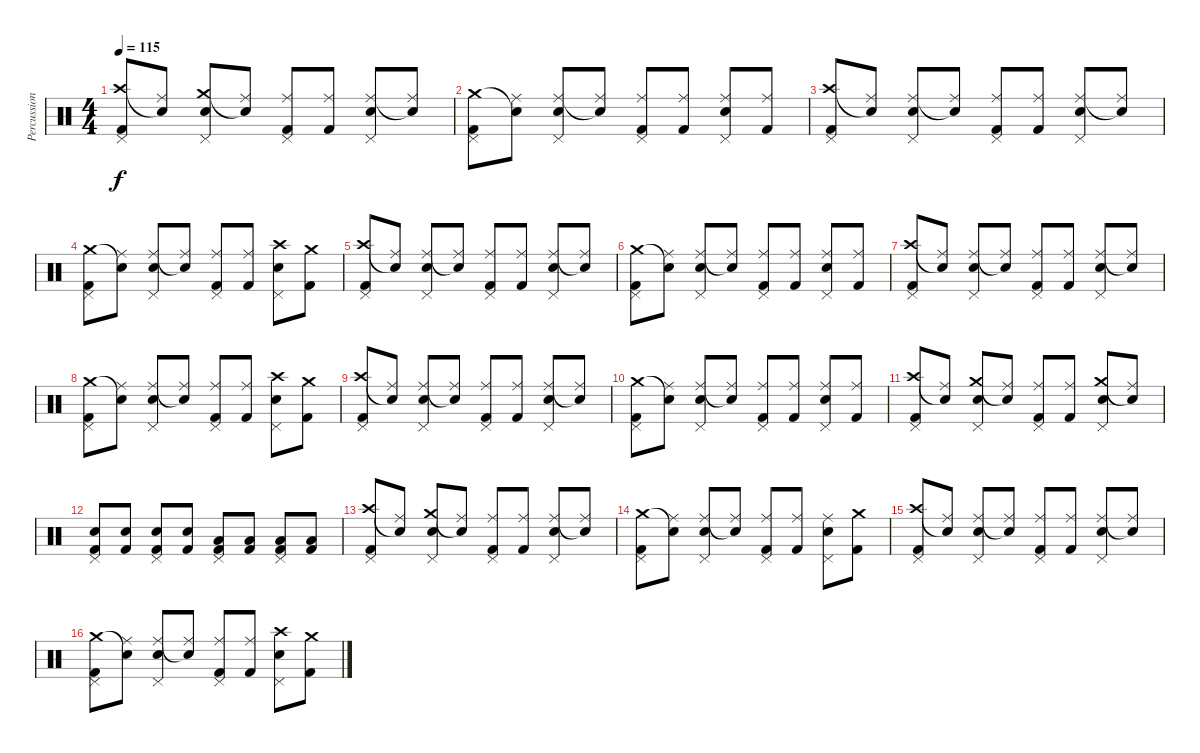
\track ("Percussioni" "Percussion") {instrument percussion}
\staff {score}
\articulation defaults
\ts (4 4)
\tempo 115
\clef neutral
\ks c
("Pedal Hi-Hat (hit)" "Crash high (hit)" "Kick (hit) 2").8{dy f} ("Ride (middle)" "Snare (hit)"{t}).8 ("Pedal Hi-Hat (hit)" "Crash medium (hit)" "Electric Snare (hit)").8 ("Ride (middle)" "Snare (hit)"{t}).8 ("Pedal Hi-Hat (hit)" "Ride (middle)" "Kick (hit) 2").8 ("Ride (middle)" "Kick (hit) 2").8 ("Pedal Hi-Hat (hit)" "Ride (middle)" "Electric Snare (hit)").8 ("Ride (middle)" "Snare (hit)"{t}).8 |
("Pedal Hi-Hat (hit)" "Crash medium (hit)" "Kick (hit) 2").8 ("Ride (middle)" "Snare (hit)"{t}).8 ("Pedal Hi-Hat (hit)" "Ride (middle)" "Electric Snare (hit)").8 ("Ride (middle)" "Snare (hit)"{t}).8 ("Pedal Hi-Hat (hit)" "Ride (middle)" "Kick (hit) 2").8 ("Ride (middle)" "Kick (hit) 2").8 ("Pedal Hi-Hat (hit)" "Ride (middle)" "Electric Snare (hit)").8 ("Ride (middle)" "Kick (hit) 2").8 |
("Pedal Hi-Hat (hit)" "Crash high (hit)" "Kick (hit) 2").8 ("Ride (middle)" "Snare (hit)"{t}).8 ("Pedal Hi-Hat (hit)" "Ride (middle)" "Electric Snare (hit)").8 ("Ride (middle)" "Snare (hit)"{t}).8 ("Pedal Hi-Hat (hit)" "Ride (middle)" "Kick (hit) 2").8 ("Ride (middle)" "Kick (hit) 2").8 ("Pedal Hi-Hat (hit)" "Ride (middle)" "Electric Snare (hit)").8 ("Ride (middle)" "Snare (hit)"{t}).8 |
("Pedal Hi-Hat (hit)" "Crash medium (hit)" "Kick (hit) 2").8 ("Ride (middle)" "Snare (hit)"{t}).8 ("Pedal Hi-Hat (hit)" "Ride (middle)" "Electric Snare (hit)").8 ("Ride (middle)" "Snare (hit)"{t}).8 ("Pedal Hi-Hat (hit)" "Ride (middle)" "Kick (hit) 2").8 ("Ride (middle)" "Kick (hit) 2").8 ("Pedal Hi-Hat (hit)" "Crash high (hit)" "Electric Snare (hit)").8 ("Crash medium (hit)" "Kick (hit) 2").8 |
("Pedal Hi-Hat (hit)" "Crash high (hit)" "Kick (hit) 2").8 ("Ride (middle)" "Snare (hit)"{t}).8 ("Pedal Hi-Hat (hit)" "Ride (middle)" "Electric Snare (hit)").8 ("Ride (middle)" "Snare (hit)"{t}).8 ("Pedal Hi-Hat (hit)" "Ride (middle)" "Kick (hit) 2").8 ("Ride (middle)" "Kick (hit) 2").8 ("Pedal Hi-Hat (hit)" "Ride (middle)" "Electric Snare (hit)").8 ("Ride (middle)" "Snare (hit)"{t}).8 |
("Pedal Hi-Hat (hit)" "Crash medium (hit)" "Kick (hit) 2").8 ("Ride (middle)" "Snare (hit)"{t}).8 ("Pedal Hi-Hat (hit)" "Ride (middle)" "Electric Snare (hit)").8 ("Ride (middle)" "Snare (hit)"{t}).8 ("Pedal Hi-Hat (hit)" "Ride (middle)" "Kick (hit) 2").8 ("Ride (middle)" "Kick (hit) 2").8 ("Pedal Hi-Hat (hit)" "Ride (middle)" "Electric Snare (hit)").8 ("Ride (middle)" "Kick (hit) 2").8 |
("Pedal Hi-Hat (hit)" "Crash high (hit)" "Kick (hit) 2").8 ("Ride (middle)" "Snare (hit)"{t}).8 ("Pedal Hi-Hat (hit)" "Ride (middle)" "Electric Snare (hit)").8 ("Ride (middle)" "Snare (hit)"{t}).8 ("Pedal Hi-Hat (hit)" "Ride (middle)" "Kick (hit) 2").8 ("Ride (middle)" "Kick (hit) 2").8 ("Pedal Hi-Hat (hit)" "Ride (middle)" "Electric Snare (hit)").8 ("Ride (middle)" "Snare (hit)"{t}).8 |
("Pedal Hi-Hat (hit)" "Crash medium (hit)" "Kick (hit) 2").8 ("Ride (middle)" "Snare (hit)"{t}).8 ("Pedal Hi-Hat (hit)" "Ride (middle)" "Electric Snare (hit)").8 ("Ride (middle)" "Snare (hit)"{t}).8 ("Pedal Hi-Hat (hit)" "Ride (middle)" "Kick (hit) 2").8 ("Ride (middle)" "Kick (hit) 2").8 ("Pedal Hi-Hat (hit)" "Crash high (hit)" "Electric Snare (hit)").8 ("Crash medium (hit)" "Kick (hit) 2").8 |
("Pedal Hi-Hat (hit)" "Crash high (hit)" "Kick (hit) 2").8 ("Ride (middle)" "Snare (hit)"{t}).8 ("Pedal Hi-Hat (hit)" "Ride (middle)" "Electric Snare (hit)").8 ("Ride (middle)" "Snare (hit)"{t}).8 ("Pedal Hi-Hat (hit)" "Ride (middle)" "Kick (hit) 2").8 ("Ride (middle)" "Kick (hit) 2").8 ("Pedal Hi-Hat (hit)" "Ride (middle)" "Electric Snare (hit)").8 ("Ride (middle)" "Snare (hit)"{t}).8 |
("Pedal Hi-Hat (hit)" "Crash medium (hit)" "Kick (hit) 2").8 ("Ride (middle)" "Snare (hit)"{t}).8 ("Pedal Hi-Hat (hit)" "Ride (middle)" "Electric Snare (hit)").8 ("Ride (middle)" "Snare (hit)"{t}).8 ("Pedal Hi-Hat (hit)" "Ride (middle)" "Kick (hit) 2").8 ("Ride (middle)" "Kick (hit) 2").8 ("Pedal Hi-Hat (hit)" "Ride (middle)" "Electric Snare (hit)").8 ("Ride (middle)" "Kick (hit) 2").8 |
("Pedal Hi-Hat (hit)" "Crash high (hit)" "Kick (hit) 2").8 ("Ride (middle)" "Snare (hit)"{t}).8 ("Pedal Hi-Hat (hit)" "Crash medium (hit)" "Electric Snare (hit)").8 ("Ride (middle)" "Snare (hit)"{t}).8 ("Pedal Hi-Hat (hit)" "Ride (middle)" "Kick (hit) 2").8 ("Ride (middle)" "Kick (hit) 2").8 ("Pedal Hi-Hat (hit)" "Crash medium (hit)" "Electric Snare (hit)").8 ("Ride (middle)" "Snare (hit)"{t}).8 |
("Pedal Hi-Hat (hit)" "Electric Snare (hit)" "Kick (hit) 2").8 ("Electric Snare (hit)" "Kick (hit) 2").8 ("Pedal Hi-Hat (hit)" "Electric Snare (hit)" "Kick (hit) 2").8 ("Electric Snare (hit)" "Kick (hit) 2").8 ("Pedal Hi-Hat (hit)" "Low Tom (hit)" "Kick (hit) 2").8 ("Low Tom (hit)" "Kick (hit) 2").8 ("Pedal Hi-Hat (hit)" "Low Floor Tom (hit)" "Kick (hit) 2").8 ("Low Floor Tom (hit)" "Kick (hit) 2").8 |
("Pedal Hi-Hat (hit)" "Crash high (hit)" "Kick (hit) 2").8 ("Ride (middle)" "Snare (hit)"{t}).8 ("Pedal Hi-Hat (hit)" "Crash medium (hit)" "Electric Snare (hit)").8 ("Ride (middle)" "Snare (hit)"{t}).8 ("Pedal Hi-Hat (hit)" "Ride (middle)" "Kick (hit) 2").8 ("Ride (middle)" "Kick (hit) 2").8 ("Pedal Hi-Hat (hit)" "Ride (middle)" "Electric Snare (hit)").8 ("Ride (middle)" "Snare (hit)"{t}).8 |
("Pedal Hi-Hat (hit)" "Crash medium (hit)" "Kick (hit) 2").8 ("Ride (middle)" "Snare (hit)"{t}).8 ("Pedal Hi-Hat (hit)" "Ride (middle)" "Electric Snare (hit)").8 ("Ride (middle)" "Snare (hit)"{t}).8 ("Pedal Hi-Hat (hit)" "Ride (middle)" "Kick (hit) 2").8 ("Ride (middle)" "Kick (hit) 2").8 ("Pedal Hi-Hat (hit)" "Ride (middle)" "Electric Snare (hit)").8 ("Crash medium (hit)" "Kick (hit) 2").8 |
("Pedal Hi-Hat (hit)" "Crash high (hit)" "Kick (hit) 2").8 ("Ride (middle)" "Snare (hit)"{t}).8 ("Pedal Hi-Hat (hit)" "Ride (middle)" "Electric Snare (hit)").8 ("Ride (middle)" "Snare (hit)"{t}).8 ("Pedal Hi-Hat (hit)" "Ride (middle)" "Kick (hit) 2").8 ("Ride (middle)" "Kick (hit) 2").8 ("Pedal Hi-Hat (hit)" "Ride (middle)" "Electric Snare (hit)").8 ("Ride (middle)" "Snare (hit)"{t}).8 |
("Pedal Hi-Hat (hit)" "Crash medium (hit)" "Kick (hit) 2").8 ("Ride (middle)" "Snare (hit)"{t}).8 ("Pedal Hi-Hat (hit)" "Ride (middle)" "Electric Snare (hit)").8 ("Ride (middle)" "Snare (hit)"{t}).8 ("Pedal Hi-Hat (hit)" "Ride (middle)" "Kick (hit) 2").8 ("Ride (middle)" "Kick (hit) 2").8 ("Pedal Hi-Hat (hit)" "Crash high (hit)" "Electric Snare (hit)").8 ("Crash medium (hit)" "Kick (hit) 2").8
